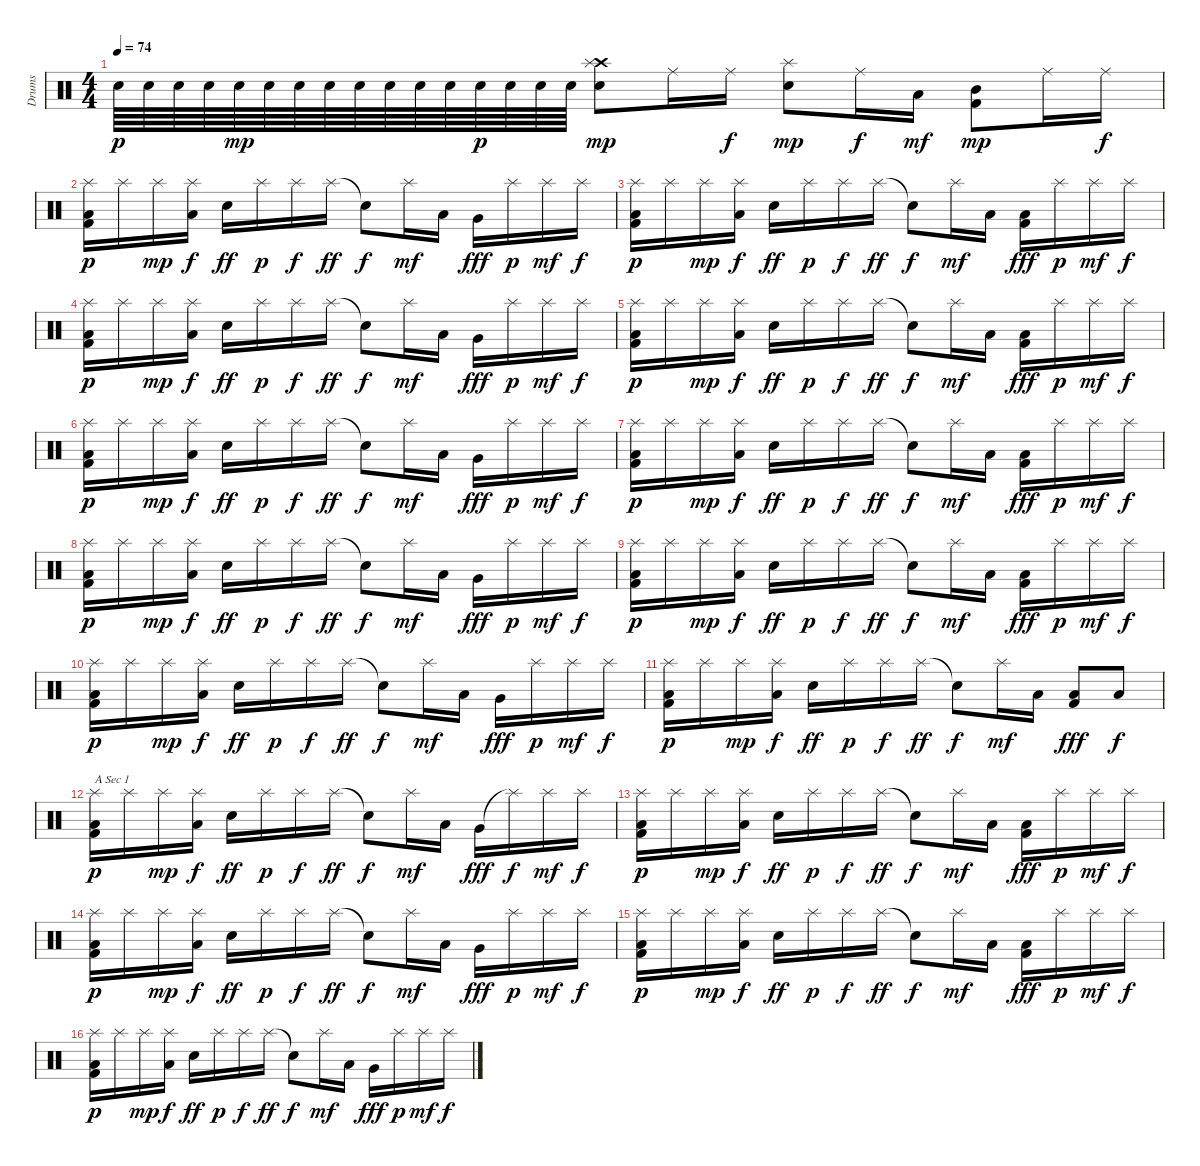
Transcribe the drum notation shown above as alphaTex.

\track ("Drums" "Drums") {instrument percussion}
\staff {score}
\articulation defaults
\ts (4 4)
\tempo 74
\clef neutral
\ks c "Electric Snare (hit)".64{dy p} "Electric Snare (hit)".64 "Electric Snare (hit)".64 "Electric Snare (hit)".64 "Electric Snare (hit)".64{dy mp} "Electric Snare (hit)".64 "Electric Snare (hit)".64 "Electric Snare (hit)".64 "Electric Snare (hit)".64 "Electric Snare (hit)".64 "Electric Snare (hit)".64 "Electric Snare (hit)".64 "Electric Snare (hit)".64{dy p} "Electric Snare (hit)".64 "Electric Snare (hit)".64 "Electric Snare (hit)".64
("Electric Snare (hit)" "Crash high (hit)" "Splash (hit)").8{dy mp} "Ride (middle)".16 "Ride (middle)".16{dy f} ("Electric Snare (hit)" "Splash (hit)").8{dy mp} "Ride (middle)".16{dy f} "Low Tom (hit)".16{dy mf} ("Mid Tom (hit)" "Kick (hit) 2").8{dy mp} "Ride (middle)".16 "Ride (middle)".16{dy f} |
("Low Tom (hit)" "Kick (hit) 2" "Splash (hit)").16{dy p} "Splash (hit)".16 "Splash (hit)".16{dy mp} ("Splash (hit)" "Low Tom (hit)").16{dy f} "Electric Snare (hit)".16{dy ff} "Splash (hit)".16{dy p} "Splash (hit)".16{dy f} "Splash (hit)".16{dy ff} "Snare (hit)"{t}.8{dy f} "Splash (hit)".16{dy mf} "Low Tom (hit)".16 "Very Low Tom (hit)".16{dy fff} "Splash (hit)".16{dy p} "Splash (hit)".16{dy mf} "Splash (hit)".16{dy f} |
("Low Tom (hit)" "Kick (hit) 2" "Splash (hit)").16{dy p} "Splash (hit)".16 "Splash (hit)".16{dy mp} ("Splash (hit)" "Low Tom (hit)").16{dy f} "Electric Snare (hit)".16{dy ff} "Splash (hit)".16{dy p} "Splash (hit)".16{dy f} "Splash (hit)".16{dy ff} "Snare (hit)"{t}.8{dy f} "Splash (hit)".16{dy mf} "Low Tom (hit)".16 ("Low Floor Tom (hit)" "Kick (hit) 2").16{dy fff} "Splash (hit)".16{dy p} "Splash (hit)".16{dy mf} "Splash (hit)".16{dy f} |
("Low Tom (hit)" "Kick (hit) 2" "Splash (hit)").16{dy p} "Splash (hit)".16 "Splash (hit)".16{dy mp} ("Splash (hit)" "Low Tom (hit)").16{dy f} "Electric Snare (hit)".16{dy ff} "Splash (hit)".16{dy p} "Splash (hit)".16{dy f} "Splash (hit)".16{dy ff} "Snare (hit)"{t}.8{dy f} "Splash (hit)".16{dy mf} "Low Tom (hit)".16 "Very Low Tom (hit)".16{dy fff} "Splash (hit)".16{dy p} "Splash (hit)".16{dy mf} "Splash (hit)".16{dy f} |
("Low Tom (hit)" "Kick (hit) 2" "Splash (hit)").16{dy p} "Splash (hit)".16 "Splash (hit)".16{dy mp} ("Splash (hit)" "Low Tom (hit)").16{dy f} "Electric Snare (hit)".16{dy ff} "Splash (hit)".16{dy p} "Splash (hit)".16{dy f} "Splash (hit)".16{dy ff} "Snare (hit)"{t}.8{dy f} "Splash (hit)".16{dy mf} "Low Tom (hit)".16 ("Low Floor Tom (hit)" "Kick (hit) 2").16{dy fff} "Splash (hit)".16{dy p} "Splash (hit)".16{dy mf} "Splash (hit)".16{dy f} |
("Low Tom (hit)" "Kick (hit) 2" "Splash (hit)").16{dy p} "Splash (hit)".16 "Splash (hit)".16{dy mp} ("Splash (hit)" "Low Tom (hit)").16{dy f} "Electric Snare (hit)".16{dy ff} "Splash (hit)".16{dy p} "Splash (hit)".16{dy f} "Splash (hit)".16{dy ff} "Snare (hit)"{t}.8{dy f} "Splash (hit)".16{dy mf} "Low Tom (hit)".16 "Very Low Tom (hit)".16{dy fff} "Splash (hit)".16{dy p} "Splash (hit)".16{dy mf} "Splash (hit)".16{dy f} |
("Low Tom (hit)" "Kick (hit) 2" "Splash (hit)").16{dy p} "Splash (hit)".16 "Splash (hit)".16{dy mp} ("Splash (hit)" "Low Tom (hit)").16{dy f} "Electric Snare (hit)".16{dy ff} "Splash (hit)".16{dy p} "Splash (hit)".16{dy f} "Splash (hit)".16{dy ff} "Snare (hit)"{t}.8{dy f} "Splash (hit)".16{dy mf} "Low Tom (hit)".16 ("Low Floor Tom (hit)" "Kick (hit) 2").16{dy fff} "Splash (hit)".16{dy p} "Splash (hit)".16{dy mf} "Splash (hit)".16{dy f} |
("Low Tom (hit)" "Kick (hit) 2" "Splash (hit)").16{dy p} "Splash (hit)".16 "Splash (hit)".16{dy mp} ("Splash (hit)" "Low Tom (hit)").16{dy f} "Electric Snare (hit)".16{dy ff} "Splash (hit)".16{dy p} "Splash (hit)".16{dy f} "Splash (hit)".16{dy ff} "Snare (hit)"{t}.8{dy f} "Splash (hit)".16{dy mf} "Low Tom (hit)".16 "Very Low Tom (hit)".16{dy fff} "Splash (hit)".16{dy p} "Splash (hit)".16{dy mf} "Splash (hit)".16{dy f} |
("Low Tom (hit)" "Kick (hit) 2" "Splash (hit)").16{dy p} "Splash (hit)".16 "Splash (hit)".16{dy mp} ("Splash (hit)" "Low Tom (hit)").16{dy f} "Electric Snare (hit)".16{dy ff} "Splash (hit)".16{dy p} "Splash (hit)".16{dy f} "Splash (hit)".16{dy ff} "Snare (hit)"{t}.8{dy f} "Splash (hit)".16{dy mf} "Low Tom (hit)".16 ("Low Floor Tom (hit)" "Kick (hit) 2").16{dy fff} "Splash (hit)".16{dy p} "Splash (hit)".16{dy mf} "Splash (hit)".16{dy f} |
("Low Tom (hit)" "Kick (hit) 2" "Splash (hit)").16{dy p} "Splash (hit)".16 "Splash (hit)".16{dy mp} ("Splash (hit)" "Low Tom (hit)").16{dy f} "Electric Snare (hit)".16{dy ff} "Splash (hit)".16{dy p} "Splash (hit)".16{dy f} "Splash (hit)".16{dy ff} "Snare (hit)"{t}.8{dy f} "Splash (hit)".16{dy mf} "Low Tom (hit)".16 "Very Low Tom (hit)".16{dy fff} "Splash (hit)".16{dy p} "Splash (hit)".16{dy mf} "Splash (hit)".16{dy f} |
("Low Tom (hit)" "Kick (hit) 2" "Splash (hit)").16{dy p} "Splash (hit)".16 "Splash (hit)".16{dy mp} ("Splash (hit)" "Low Tom (hit)").16{dy f} "Electric Snare (hit)".16{dy ff} "Splash (hit)".16{dy p} "Splash (hit)".16{dy f} "Splash (hit)".16{dy ff} "Snare (hit)"{t}.8{dy f} "Splash (hit)".16{dy mf} "Low Tom (hit)".16 ("Low Floor Tom (hit)" "Kick (hit) 2").8{dy fff} "Low Floor Tom (hit)".8{dy f} |
("Low Tom (hit)" "Kick (hit) 2" "Splash (hit)").16{txt "A Sec 1" dy p} "Splash (hit)".16 "Splash (hit)".16{dy mp} ("Splash (hit)" "Low Tom (hit)").16{dy f} "Electric Snare (hit)".16{dy ff} "Splash (hit)".16{dy p} "Splash (hit)".16{txt "" dy f} "Splash (hit)".16{dy ff} "Snare (hit)"{t}.8{dy f} "Splash (hit)".16{dy mf} "Low Tom (hit)".16 "Very Low Tom (hit)".16{dy fff} "Splash (hit)"{t}.16{dy f} "Splash (hit)".16{dy mf} "Splash (hit)".16{dy f} |
("Low Tom (hit)" "Kick (hit) 2" "Splash (hit)").16{dy p} "Splash (hit)".16 "Splash (hit)".16{dy mp} ("Splash (hit)" "Low Tom (hit)").16{dy f} "Electric Snare (hit)".16{dy ff} "Splash (hit)".16{dy p} "Splash (hit)".16{dy f} "Splash (hit)".16{dy ff} "Snare (hit)"{t}.8{dy f} "Splash (hit)".16{dy mf} "Low Tom (hit)".16 ("Low Floor Tom (hit)" "Kick (hit) 2").16{dy fff} "Splash (hit)".16{dy p} "Splash (hit)".16{dy mf} "Splash (hit)".16{dy f} |
("Low Tom (hit)" "Kick (hit) 2" "Splash (hit)").16{dy p} "Splash (hit)".16 "Splash (hit)".16{dy mp} ("Splash (hit)" "Low Tom (hit)").16{dy f} "Electric Snare (hit)".16{dy ff} "Splash (hit)".16{dy p} "Splash (hit)".16{dy f} "Splash (hit)".16{dy ff} "Snare (hit)"{t}.8{dy f} "Splash (hit)".16{dy mf} "Low Tom (hit)".16 "Very Low Tom (hit)".16{dy fff} "Splash (hit)".16{dy p} "Splash (hit)".16{dy mf} "Splash (hit)".16{dy f} |
("Low Tom (hit)" "Kick (hit) 2" "Splash (hit)").16{dy p} "Splash (hit)".16 "Splash (hit)".16{dy mp} ("Splash (hit)" "Low Tom (hit)").16{dy f} "Electric Snare (hit)".16{dy ff} "Splash (hit)".16{dy p} "Splash (hit)".16{dy f} "Splash (hit)".16{dy ff} "Snare (hit)"{t}.8{dy f} "Splash (hit)".16{dy mf} "Low Tom (hit)".16 ("Low Floor Tom (hit)" "Kick (hit) 2").16{dy fff} "Splash (hit)".16{dy p} "Splash (hit)".16{dy mf} "Splash (hit)".16{dy f} |
("Low Tom (hit)" "Kick (hit) 2" "Splash (hit)").16{dy p} "Splash (hit)".16 "Splash (hit)".16{dy mp} ("Splash (hit)" "Low Tom (hit)").16{dy f} "Electric Snare (hit)".16{dy ff} "Splash (hit)".16{dy p} "Splash (hit)".16{dy f} "Splash (hit)".16{dy ff} "Snare (hit)"{t}.8{dy f} "Splash (hit)".16{dy mf} "Low Tom (hit)".16 "Very Low Tom (hit)".16{dy fff} "Splash (hit)".16{dy p} "Splash (hit)".16{dy mf} "Splash (hit)".16{dy f}
